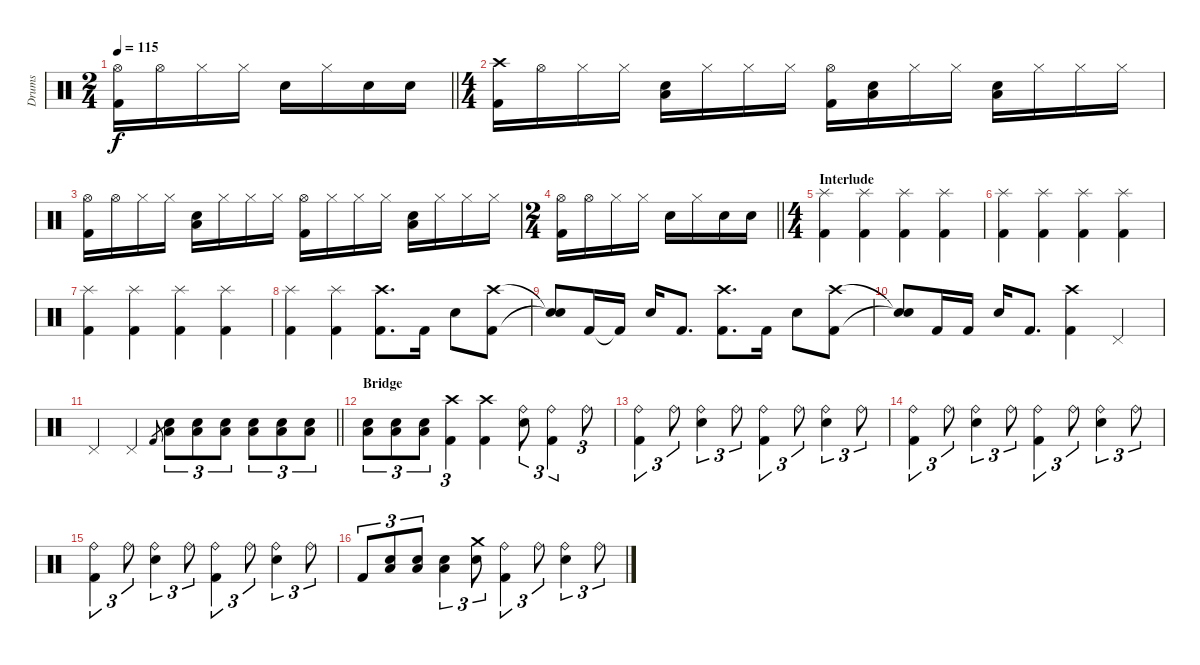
\track ("Drums" "Drums") {instrument percussion}
\staff {score}
\articulation defaults
\ts (2 4)
\tempo 115
\clef neutral
\barLineRight lightlight
\ks c
("Hi-Hat (open)" "Kick (hit) 2").16{dy f} "Hi-Hat (open)".16 "Hi-Hat (closed)".16 "Hi-Hat (closed)".16 "Electric Snare (hit)".16 "Hi-Hat (closed)".16 "Electric Snare (hit)".16 "Electric Snare (hit)".16 |
\ts (4 4)
("Crash high (hit)" "Kick (hit) 2").16 "Hi-Hat (open)".16 "Hi-Hat (closed)".16 "Hi-Hat (closed)".16 ("Low Floor Tom (hit)" "Electric Snare (hit)").16 "Hi-Hat (closed)".16 "Hi-Hat (closed)".16 "Hi-Hat (closed)".16 ("Hi-Hat (open)" "Kick (hit) 2").16 ("Low Floor Tom (hit)" "Electric Snare (hit)").16 "Hi-Hat (closed)".16 "Hi-Hat (closed)".16 ("Low Floor Tom (hit)" "Electric Snare (hit)").16 "Hi-Hat (closed)".16 "Hi-Hat (closed)".16 "Hi-Hat (closed)".16 |
("Hi-Hat (open)" "Kick (hit) 2").16 "Hi-Hat (open)".16 "Hi-Hat (closed)".16 "Hi-Hat (closed)".16 ("Low Floor Tom (hit)" "Electric Snare (hit)").16 "Hi-Hat (closed)".16 "Hi-Hat (closed)".16 "Hi-Hat (closed)".16 ("Hi-Hat (open)" "Kick (hit) 2").16 "Hi-Hat (closed)".16 "Hi-Hat (closed)".16 "Hi-Hat (closed)".16 ("Low Floor Tom (hit)" "Electric Snare (hit)").16 "Hi-Hat (closed)".16 "Hi-Hat (closed)".16 "Hi-Hat (closed)".16 |
\ts (2 4)
\barLineRight lightlight
("Hi-Hat (open)" "Kick (hit) 2").16 "Hi-Hat (open)".16 "Hi-Hat (closed)".16 "Hi-Hat (closed)".16 "Electric Snare (hit)".16 "Hi-Hat (closed)".16 "Electric Snare (hit)".16 "Electric Snare (hit)".16 |
\ts (4 4)
\section ("" "Interlude")
("Splash (hit)" "Kick (hit) 2").4 ("Splash (hit)" "Kick (hit) 2").4 ("Splash (hit)" "Kick (hit) 2").4 ("Splash (hit)" "Kick (hit) 2").4 |
("Splash (hit)" "Kick (hit) 2").4 ("Splash (hit)" "Kick (hit) 2").4 ("Splash (hit)" "Kick (hit) 2").4 ("Splash (hit)" "Kick (hit) 2").4 |
("Splash (hit)" "Kick (hit) 2").4 ("Splash (hit)" "Kick (hit) 2").4 ("Splash (hit)" "Kick (hit) 2").4 ("Splash (hit)" "Kick (hit) 2").4 |
("Splash (hit)" "Kick (hit) 2").4 ("Splash (hit)" "Kick (hit) 2").4 ("Crash high (hit)" "Kick (hit) 2").8{d} "Kick (hit) 2".16 "Electric Snare (hit)".8 ("Crash high (hit)" "Kick (hit) 2").8 |
("Snare (hit)"{t} "Snare (hit)"{t}).8 "Kick (hit) 2".16 "Kick (hit) 2"{t}.16 "Electric Snare (hit)".16 "Kick (hit) 2".8{d} ("Crash high (hit)" "Kick (hit) 2").8{d} "Kick (hit) 2".16 "Electric Snare (hit)".8 ("Crash high (hit)" "Kick (hit) 2").8 |
("Snare (hit)"{t} "Snare (hit)"{t}).8 "Kick (hit) 2".16 "Kick (hit) 2".16 "Electric Snare (hit)".16 "Kick (hit) 2".8{d} ("Crash high (hit)" "Kick (hit) 2").4 "Pedal Hi-Hat (hit)".4 |
\barLineRight lightlight "Pedal Hi-Hat (hit)".4 "Pedal Hi-Hat (hit)".4 "Kick (hit) 2".8{gr}
("Low Floor Tom (hit)" "Electric Snare (hit)").8{tu (3 2)} ("Low Floor Tom (hit)" "Electric Snare (hit)").8{tu (3 2)} ("Low Floor Tom (hit)" "Electric Snare (hit)").8{tu (3 2)} ("Low Floor Tom (hit)" "Electric Snare (hit)").8{tu (3 2)} ("Low Floor Tom (hit)" "Electric Snare (hit)").8{tu (3 2)} ("Low Floor Tom (hit)" "Electric Snare (hit)").8{tu (3 2)} |
\section ("" "Bridge")
("Low Floor Tom (hit)" "Electric Snare (hit)").8{tu (3 2)} ("Low Floor Tom (hit)" "Electric Snare (hit)").8{tu (3 2)} ("Low Floor Tom (hit)" "Electric Snare (hit)").8{tu (3 2)} ("Crash high (hit)" "Kick (hit) 2").4{tu (3 2)} ("Crash high (hit)" "Kick (hit) 2").4 ("Ride (bell)" "Electric Snare (hit)").8{tu (3 2)} ("Ride (bell)" "Kick (hit) 2").4{tu (3 2)} "Ride (bell)".8{tu (3 2)} |
("Ride (bell)" "Kick (hit) 2").4{tu (3 2)} "Ride (bell)".8{tu (3 2)} ("Ride (bell)" "Electric Snare (hit)").4{tu (3 2)} "Ride (bell)".8{tu (3 2)} ("Ride (bell)" "Kick (hit) 2").4{tu (3 2)} "Ride (bell)".8{tu (3 2)} ("Ride (bell)" "Electric Snare (hit)").4{tu (3 2)} "Ride (bell)".8{tu (3 2)} |
("Ride (bell)" "Kick (hit) 2").4{tu (3 2)} "Ride (bell)".8{tu (3 2)} ("Ride (bell)" "Electric Snare (hit)").4{tu (3 2)} "Ride (bell)".8{tu (3 2)} ("Ride (bell)" "Kick (hit) 2").4{tu (3 2)} "Ride (bell)".8{tu (3 2)} ("Ride (bell)" "Electric Snare (hit)").4{tu (3 2)} "Ride (bell)".8{tu (3 2)} |
("Ride (bell)" "Kick (hit) 2").4{tu (3 2)} "Ride (bell)".8{tu (3 2)} ("Ride (bell)" "Electric Snare (hit)").4{tu (3 2)} "Ride (bell)".8{tu (3 2)} ("Ride (bell)" "Kick (hit) 2").4{tu (3 2)} "Ride (bell)".8{tu (3 2)} ("Ride (bell)" "Electric Snare (hit)").4{tu (3 2)} "Ride (bell)".8{tu (3 2)} |
"Kick (hit) 2".8{tu (3 2)} ("Low Floor Tom (hit)" "Electric Snare (hit)").8{tu (3 2)} ("Low Floor Tom (hit)" "Electric Snare (hit)").8{tu (3 2)} ("Low Floor Tom (hit)" "Electric Snare (hit)").4{tu (3 2)} ("Crash medium (hit)" "Electric Snare (hit)").8{tu (3 2)} ("Ride (bell)" "Kick (hit) 2").4{tu (3 2)} "Ride (bell)".8{tu (3 2)} ("Ride (bell)" "Electric Snare (hit)").4{tu (3 2)} "Ride (bell)".8{tu (3 2)}
